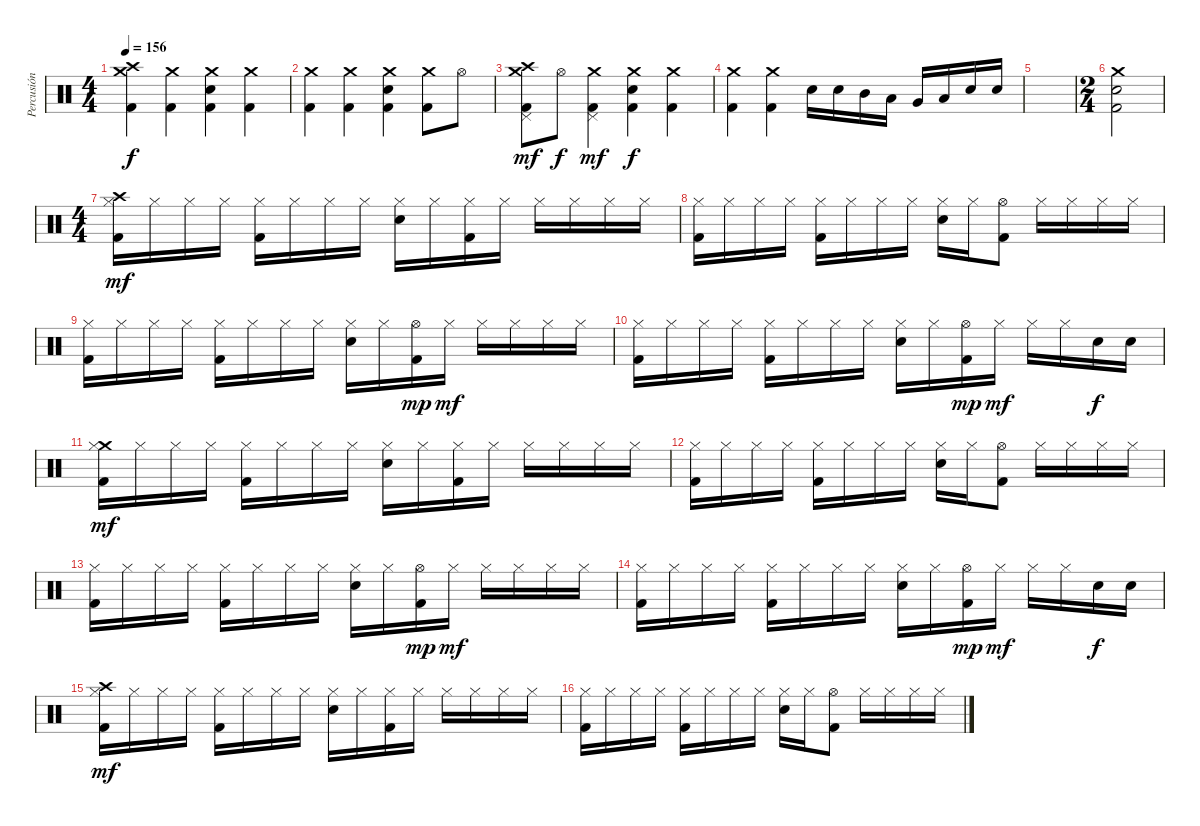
\track ("Percusión" "Percusión") {instrument percussion}
\staff {score}
\articulation defaults
\ts (4 4)
\tempo 156
\clef neutral
\ks c
("Crash high (hit)" "Crash medium (hit)" "Kick (hit) 2").4{dy f} ("Crash medium (hit)" "Kick (hit) 2").4 ("Crash medium (hit)" "Kick (hit) 2" "Electric Snare (hit)").4 ("Crash medium (hit)" "Kick (hit) 2").4 |
("Crash medium (hit)" "Kick (hit) 2").4 ("Crash medium (hit)" "Kick (hit) 2").4 ("Crash medium (hit)" "Kick (hit) 2" "Electric Snare (hit)").4 ("Crash medium (hit)" "Kick (hit) 2").8 "Hi-Hat (open)".8 |
("Crash high (hit)" "Crash medium (hit)" "Kick (hit) 2" "Pedal Hi-Hat (hit)").8{dy mf} "Hi-Hat (open)".8{dy f} ("Crash medium (hit)" "Kick (hit) 2" "Pedal Hi-Hat (hit)").4{dy mf} ("Crash medium (hit)" "Kick (hit) 2" "Electric Snare (hit)").4{dy f} ("Crash medium (hit)" "Kick (hit) 2").4 |
("Crash medium (hit)" "Kick (hit) 2").4 ("Crash medium (hit)" "Kick (hit) 2").4 "Electric Snare (hit)".16 "Electric Snare (hit)".16 "Mid Tom (hit)".16 "Low Tom (hit)".16 "Very Low Tom (hit)".16 "Low Floor Tom (hit)".16 "Electric Snare (hit)".16 "Electric Snare (hit)".16 |
|
\ts (2 4)
("Crash medium (hit)" "Electric Snare (hit)" "Kick (hit) 2").2 |
\ts (4 4)
("Crash high (hit)" "Hi-Hat (closed)" "Kick (hit) 2").16{dy mf} "Hi-Hat (closed)".16 "Hi-Hat (closed)".16 "Hi-Hat (closed)".16 ("Hi-Hat (closed)" "Kick (hit) 2").16 "Hi-Hat (closed)".16 "Hi-Hat (closed)".16 "Hi-Hat (closed)".16 ("Hi-Hat (closed)" "Electric Snare (hit)").16 "Hi-Hat (closed)".16 ("Hi-Hat (closed)" "Kick (hit) 2").16 "Hi-Hat (closed)".16 "Hi-Hat (closed)".16 "Hi-Hat (closed)".16 "Hi-Hat (closed)".16 "Hi-Hat (closed)".16 |
("Hi-Hat (closed)" "Kick (hit) 2").16 "Hi-Hat (closed)".16 "Hi-Hat (closed)".16 "Hi-Hat (closed)".16 ("Hi-Hat (closed)" "Kick (hit) 2").16 "Hi-Hat (closed)".16 "Hi-Hat (closed)".16 "Hi-Hat (closed)".16 ("Hi-Hat (closed)" "Electric Snare (hit)").16 "Hi-Hat (closed)".16 ("Hi-Hat (open)" "Kick (hit) 2").8 "Hi-Hat (closed)".16 "Hi-Hat (closed)".16 "Hi-Hat (closed)".16 "Hi-Hat (closed)".16 |
("Hi-Hat (closed)" "Kick (hit) 2").16 "Hi-Hat (closed)".16 "Hi-Hat (closed)".16 "Hi-Hat (closed)".16 ("Hi-Hat (closed)" "Kick (hit) 2").16 "Hi-Hat (closed)".16 "Hi-Hat (closed)".16 "Hi-Hat (closed)".16 ("Hi-Hat (closed)" "Electric Snare (hit)").16 "Hi-Hat (closed)".16 ("Hi-Hat (open)" "Kick (hit) 2").16{dy mp} "Hi-Hat (closed)".16{dy mf} "Hi-Hat (closed)".16 "Hi-Hat (closed)".16 "Hi-Hat (closed)".16 "Hi-Hat (closed)".16 |
("Hi-Hat (closed)" "Kick (hit) 2").16 "Hi-Hat (closed)".16 "Hi-Hat (closed)".16 "Hi-Hat (closed)".16 ("Hi-Hat (closed)" "Kick (hit) 2").16 "Hi-Hat (closed)".16 "Hi-Hat (closed)".16 "Hi-Hat (closed)".16 ("Hi-Hat (closed)" "Electric Snare (hit)").16 "Hi-Hat (closed)".16 ("Hi-Hat (open)" "Kick (hit) 2").16{dy mp} "Hi-Hat (closed)".16{dy mf} "Hi-Hat (closed)".16 "Hi-Hat (closed)".16 "Electric Snare (hit)".16{dy f} "Electric Snare (hit)".16 |
("Crash medium (hit)" "Hi-Hat (closed)" "Kick (hit) 2").16{dy mf} "Hi-Hat (closed)".16 "Hi-Hat (closed)".16 "Hi-Hat (closed)".16 ("Hi-Hat (closed)" "Kick (hit) 2").16 "Hi-Hat (closed)".16 "Hi-Hat (closed)".16 "Hi-Hat (closed)".16 ("Hi-Hat (closed)" "Electric Snare (hit)").16 "Hi-Hat (closed)".16 ("Hi-Hat (closed)" "Kick (hit) 2").16 "Hi-Hat (closed)".16 "Hi-Hat (closed)".16 "Hi-Hat (closed)".16 "Hi-Hat (closed)".16 "Hi-Hat (closed)".16 |
("Hi-Hat (closed)" "Kick (hit) 2").16 "Hi-Hat (closed)".16 "Hi-Hat (closed)".16 "Hi-Hat (closed)".16 ("Hi-Hat (closed)" "Kick (hit) 2").16 "Hi-Hat (closed)".16 "Hi-Hat (closed)".16 "Hi-Hat (closed)".16 ("Hi-Hat (closed)" "Electric Snare (hit)").16 "Hi-Hat (closed)".16 ("Hi-Hat (open)" "Kick (hit) 2").8 "Hi-Hat (closed)".16 "Hi-Hat (closed)".16 "Hi-Hat (closed)".16 "Hi-Hat (closed)".16 |
("Hi-Hat (closed)" "Kick (hit) 2").16 "Hi-Hat (closed)".16 "Hi-Hat (closed)".16 "Hi-Hat (closed)".16 ("Hi-Hat (closed)" "Kick (hit) 2").16 "Hi-Hat (closed)".16 "Hi-Hat (closed)".16 "Hi-Hat (closed)".16 ("Hi-Hat (closed)" "Electric Snare (hit)").16 "Hi-Hat (closed)".16 ("Hi-Hat (open)" "Kick (hit) 2").16{dy mp} "Hi-Hat (closed)".16{dy mf} "Hi-Hat (closed)".16 "Hi-Hat (closed)".16 "Hi-Hat (closed)".16 "Hi-Hat (closed)".16 |
("Hi-Hat (closed)" "Kick (hit) 2").16 "Hi-Hat (closed)".16 "Hi-Hat (closed)".16 "Hi-Hat (closed)".16 ("Hi-Hat (closed)" "Kick (hit) 2").16 "Hi-Hat (closed)".16 "Hi-Hat (closed)".16 "Hi-Hat (closed)".16 ("Hi-Hat (closed)" "Electric Snare (hit)").16 "Hi-Hat (closed)".16 ("Hi-Hat (open)" "Kick (hit) 2").16{dy mp} "Hi-Hat (closed)".16{dy mf} "Hi-Hat (closed)".16 "Hi-Hat (closed)".16 "Electric Snare (hit)".16{dy f} "Electric Snare (hit)".16 |
("Crash high (hit)" "Hi-Hat (closed)" "Kick (hit) 2").16{dy mf} "Hi-Hat (closed)".16 "Hi-Hat (closed)".16 "Hi-Hat (closed)".16 ("Hi-Hat (closed)" "Kick (hit) 2").16 "Hi-Hat (closed)".16 "Hi-Hat (closed)".16 "Hi-Hat (closed)".16 ("Hi-Hat (closed)" "Electric Snare (hit)").16 "Hi-Hat (closed)".16 ("Hi-Hat (closed)" "Kick (hit) 2").16 "Hi-Hat (closed)".16 "Hi-Hat (closed)".16 "Hi-Hat (closed)".16 "Hi-Hat (closed)".16 "Hi-Hat (closed)".16 |
("Hi-Hat (closed)" "Kick (hit) 2").16 "Hi-Hat (closed)".16 "Hi-Hat (closed)".16 "Hi-Hat (closed)".16 ("Hi-Hat (closed)" "Kick (hit) 2").16 "Hi-Hat (closed)".16 "Hi-Hat (closed)".16 "Hi-Hat (closed)".16 ("Hi-Hat (closed)" "Electric Snare (hit)").16 "Hi-Hat (closed)".16 ("Hi-Hat (open)" "Kick (hit) 2").8 "Hi-Hat (closed)".16 "Hi-Hat (closed)".16 "Hi-Hat (closed)".16 "Hi-Hat (closed)".16
